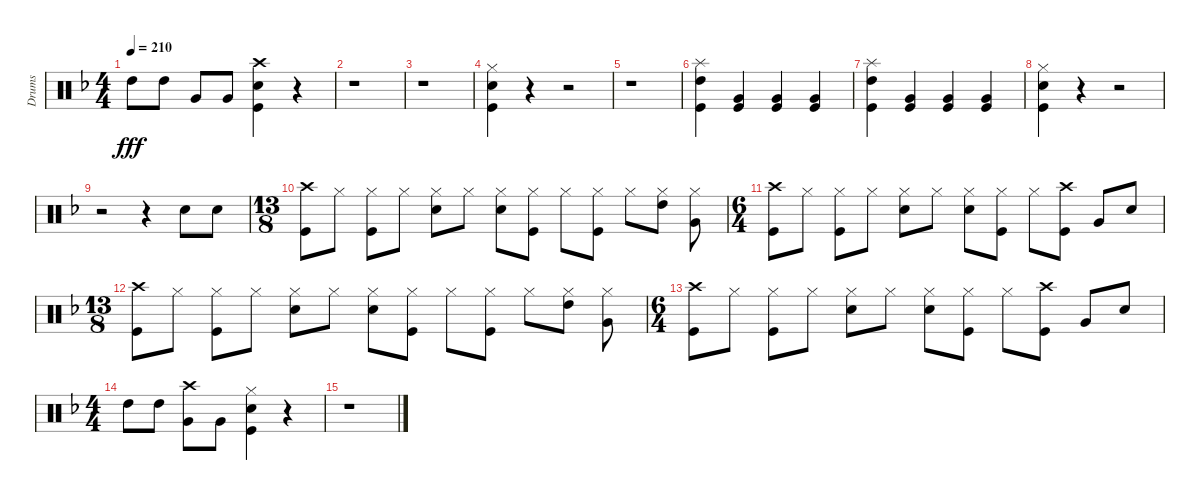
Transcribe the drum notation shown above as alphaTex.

\track ("Drums" "Drums") {instrument percussion}
\staff {score}
\articulation defaults
\ts (4 4)
\tempo 210
\clef neutral
\ks f "High Tom (hit)".8{dy fff} "High Tom (hit)".8 "Very Low Tom (hit)".8 "Very Low Tom (hit)".8
("Crash high (hit)" "Snare (hit) 2" "Kick (hit)").4 r.4 |
r.1 |
r.1 |
("Hi-Hat (closed)" "Snare (hit) 2" "Kick (hit)").4 r.4 r.2 |
r.1 |
("Splash (hit)" "High Tom (hit)" "Kick (hit)").4 ("Very Low Tom (hit)" "Kick (hit)").4 ("Very Low Tom (hit)" "Kick (hit)").4 ("Very Low Tom (hit)" "Kick (hit)").4 |
("Splash (hit)" "High Tom (hit)" "Kick (hit)").4 ("Very Low Tom (hit)" "Kick (hit)").4 ("Very Low Tom (hit)" "Kick (hit)").4 ("Very Low Tom (hit)" "Kick (hit)").4 |
("Hi-Hat (closed)" "Snare (hit) 2" "Kick (hit)").4 r.4 r.2 |
r.2 r.4 "Snare (hit) 2".8 "Snare (hit) 2".8 |
\ts (13 8)
("Crash high (hit)" "Kick (hit)").8 "Hi-Hat (closed)".8 ("Hi-Hat (closed)" "Kick (hit)").8 "Hi-Hat (closed)".8 ("Hi-Hat (closed)" "Snare (hit) 2").8 "Hi-Hat (closed)".8 ("Hi-Hat (closed)" "Snare (hit) 2").8 ("Hi-Hat (closed)" "Kick (hit)").8 "Hi-Hat (closed)".8 ("Hi-Hat (closed)" "Kick (hit)").8 "Hi-Hat (closed)".8 ("Hi-Hat (closed)" "High Tom (hit)").8 ("Hi-Hat (closed)" "Very Low Tom (hit)").8 |
\ts (6 4)
("Crash high (hit)" "Kick (hit)").8 "Hi-Hat (closed)".8 ("Hi-Hat (closed)" "Kick (hit)").8 "Hi-Hat (closed)".8 ("Hi-Hat (closed)" "Snare (hit) 2").8 "Hi-Hat (closed)".8 ("Hi-Hat (closed)" "Snare (hit) 2").8 ("Hi-Hat (closed)" "Kick (hit)").8 "Hi-Hat (closed)".8 ("Crash high (hit)" "Kick (hit)").8 "Very Low Tom (hit)".8 "Snare (hit) 2".8 |
\ts (13 8)
("Crash high (hit)" "Kick (hit)").8 "Hi-Hat (closed)".8 ("Hi-Hat (closed)" "Kick (hit)").8 "Hi-Hat (closed)".8 ("Hi-Hat (closed)" "Snare (hit) 2").8 "Hi-Hat (closed)".8 ("Hi-Hat (closed)" "Snare (hit) 2").8 ("Hi-Hat (closed)" "Kick (hit)").8 "Hi-Hat (closed)".8 ("Hi-Hat (closed)" "Kick (hit)").8 "Hi-Hat (closed)".8 ("Hi-Hat (closed)" "High Tom (hit)").8 ("Hi-Hat (closed)" "Very Low Tom (hit)").8 |
\ts (6 4)
("Crash high (hit)" "Kick (hit)").8 "Hi-Hat (closed)".8 ("Hi-Hat (closed)" "Kick (hit)").8 "Hi-Hat (closed)".8 ("Hi-Hat (closed)" "Snare (hit) 2").8 "Hi-Hat (closed)".8 ("Hi-Hat (closed)" "Snare (hit) 2").8 ("Hi-Hat (closed)" "Kick (hit)").8 "Hi-Hat (closed)".8 ("Crash high (hit)" "Kick (hit)").8 "Very Low Tom (hit)".8 "Snare (hit) 2".8 |
\ts (4 4)
"High Tom (hit)".8 "High Tom (hit)".8 ("Crash high (hit)" "Very Low Tom (hit)").8 "Very Low Tom (hit)".8 ("Hi-Hat (closed)" "Snare (hit) 2" "Kick (hit)").4 r.4 |
r.1
